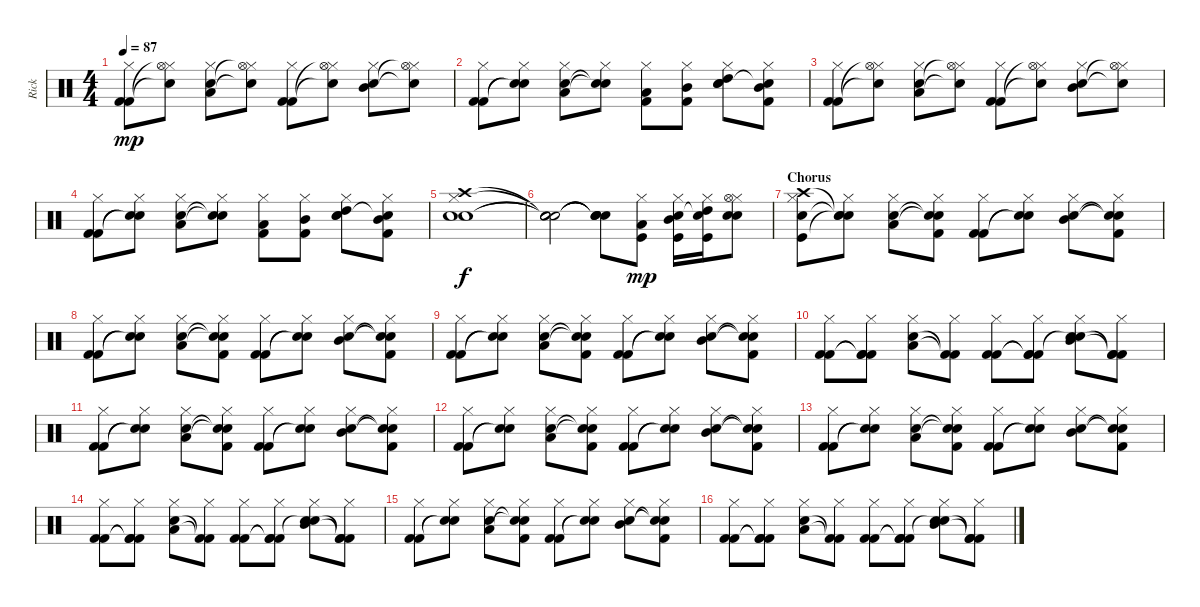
\track ("Rick" "Rick") {instrument percussion}
\staff {score}
\articulation defaults
\ts (4 4)
\tempo 87
\clef neutral
\ks c
("Hi-Hat (closed)" "Kick (hit) 2" "Kick (hit) 2").8{dy mp} ("Hi-Hat (closed)" "Hi-Hat (open)"{t} "Snare (hit)"{t}).8 ("Hi-Hat (closed)" "Electric Snare (hit)" "Low Tom (hit)").8 ("Hi-Hat (closed)" "Hi-Hat (open)"{t} "Snare (hit)"{t}).8 ("Hi-Hat (closed)" "Kick (hit) 2" "Kick (hit) 2").8 ("Hi-Hat (closed)" "Hi-Hat (open)"{t} "Snare (hit)"{t}).8 ("Hi-Hat (closed)" "Electric Snare (hit)" "Mid Tom (hit)").8 ("Hi-Hat (closed)" "Hi-Hat (open)"{t} "Snare (hit)"{t}).8 |
("Hi-Hat (closed)" "Kick (hit) 2" "Kick (hit) 2").8 ("Hi-Hat (closed)" "Snare (hit)"{t} "Snare (hit)"{t}).8 ("Hi-Hat (closed)" "Electric Snare (hit)" "Low Tom (hit)").8 ("Hi-Hat (closed)" "Snare (hit)"{t} "Snare (hit)"{t}).8 ("Hi-Hat (closed)" "Low Tom (hit)" "Kick (hit) 2").8 ("Hi-Hat (closed)" "Mid Tom (hit)" "Kick (hit) 2").8 ("Hi-Hat (closed)" "Electric Snare (hit)" "High Tom (hit)" "Snare (hit) 2").8 ("Hi-Hat (closed)" "Mid Tom (hit)" "Kick (hit) 2" "Snare (hit)"{t}).8 |
("Hi-Hat (closed)" "Kick (hit) 2" "Kick (hit) 2").8 ("Hi-Hat (closed)" "Hi-Hat (open)"{t} "Snare (hit)"{t}).8 ("Hi-Hat (closed)" "Electric Snare (hit)" "Low Tom (hit)").8 ("Hi-Hat (closed)" "Hi-Hat (open)"{t} "Snare (hit)"{t}).8 ("Hi-Hat (closed)" "Kick (hit) 2" "Kick (hit) 2").8 ("Hi-Hat (closed)" "Hi-Hat (open)"{t} "Snare (hit)"{t}).8 ("Hi-Hat (closed)" "Electric Snare (hit)" "Mid Tom (hit)").8 ("Hi-Hat (closed)" "Hi-Hat (open)"{t} "Snare (hit)"{t}).8 |
("Hi-Hat (closed)" "Kick (hit) 2" "Kick (hit) 2").8 ("Hi-Hat (closed)" "Snare (hit)"{t} "Snare (hit)"{t}).8 ("Hi-Hat (closed)" "Electric Snare (hit)" "Low Tom (hit)").8 ("Hi-Hat (closed)" "Snare (hit)"{t} "Snare (hit)"{t}).8 ("Hi-Hat (closed)" "Low Tom (hit)" "Kick (hit) 2").8 ("Hi-Hat (closed)" "Mid Tom (hit)" "Kick (hit) 2").8 ("Hi-Hat (closed)" "Electric Snare (hit)" "High Tom (hit)" "Snare (hit) 2").8 ("Hi-Hat (closed)" "Mid Tom (hit)" "Kick (hit) 2" "Snare (hit)"{t}).8 |
("Hi-Hat (closed)" "Electric Snare (hit)" "Snare (hit) 2" "Crash high (hit)").1{dy f} |
("Snare (hit)"{t} "Snare (hit)"{t} "Snare (hit)"{t} "Snare (hit)"{t}).2 ("Snare (hit)"{t} "Snare (hit)"{t} "Snare (hit)"{t} "Snare (hit)"{t}).8 ("Hi-Hat (closed)" "Kick (hit)" "Low Tom (hit)").8{dy mp} ("Hi-Hat (closed)" "Kick (hit)" "Mid Tom (hit)" "Electric Snare (hit)").16 ("Hi-Hat (closed)" "Kick (hit)" "High Tom (hit)" "Snare (hit) 2"{t}).16 ("Hi-Hat (closed)" "Electric Snare (hit)" "Snare (hit) 2" "Hi-Hat (open)").8 |
\section ("" "Chorus")
("Hi-Hat (closed)" "Electric Snare (hit)" "Kick (hit)" "Crash high (hit)").8 ("Hi-Hat (closed)" "Snare (hit)"{t} "Snare (hit)"{t} "Snare (hit)"{t}).8 ("Hi-Hat (closed)" "Electric Snare (hit)" "Low Tom (hit)").8 ("Hi-Hat (closed)" "Snare (hit)"{t} "Snare (hit)"{t} "Kick (hit) 2").8 ("Hi-Hat (closed)" "Kick (hit) 2" "Kick (hit) 2").8 ("Hi-Hat (closed)" "Snare (hit)"{t} "Snare (hit)"{t}).8 ("Hi-Hat (closed)" "Electric Snare (hit)" "Mid Tom (hit)").8 ("Hi-Hat (closed)" "Snare (hit)"{t} "Snare (hit)"{t} "Kick (hit) 2").8 |
("Hi-Hat (closed)" "Kick (hit) 2" "Kick (hit) 2").8 ("Hi-Hat (closed)" "Snare (hit)"{t} "Snare (hit)"{t}).8 ("Hi-Hat (closed)" "Electric Snare (hit)" "Low Tom (hit)").8 ("Hi-Hat (closed)" "Snare (hit)"{t} "Snare (hit)"{t} "Kick (hit) 2").8 ("Hi-Hat (closed)" "Kick (hit) 2" "Kick (hit) 2").8 ("Hi-Hat (closed)" "Snare (hit)"{t} "Snare (hit)"{t}).8 ("Hi-Hat (closed)" "Electric Snare (hit)" "Mid Tom (hit)").8 ("Hi-Hat (closed)" "Snare (hit)"{t} "Snare (hit)"{t} "Kick (hit) 2").8 |
("Hi-Hat (closed)" "Kick (hit) 2" "Kick (hit) 2").8 ("Hi-Hat (closed)" "Snare (hit)"{t} "Snare (hit)"{t}).8 ("Hi-Hat (closed)" "Electric Snare (hit)" "Low Tom (hit)").8 ("Hi-Hat (closed)" "Snare (hit)"{t} "Snare (hit)"{t} "Kick (hit) 2").8 ("Hi-Hat (closed)" "Kick (hit) 2" "Kick (hit) 2").8 ("Hi-Hat (closed)" "Snare (hit)"{t} "Snare (hit)"{t}).8 ("Hi-Hat (closed)" "Electric Snare (hit)" "Mid Tom (hit)").8 ("Hi-Hat (closed)" "Snare (hit)"{t} "Snare (hit)"{t} "Kick (hit) 2").8 |
("Hi-Hat (closed)" "Kick (hit) 2" "Kick (hit) 2").8 ("Hi-Hat (closed)" "Kick (hit) 2"{t} "Kick (hit) 2"{t} "Kick (hit) 2").8 ("Hi-Hat (closed)" "Electric Snare (hit)" "Low Tom (hit)").8 ("Hi-Hat (closed)" "Kick (hit) 2"{t} "Kick (hit) 2"{t}).8 ("Hi-Hat (closed)" "Kick (hit) 2" "Kick (hit) 2").8 ("Hi-Hat (closed)" "Kick (hit) 2"{t} "Kick (hit) 2"{t} "Kick (hit) 2").8 ("Hi-Hat (closed)" "Electric Snare (hit)" "Mid Tom (hit)" "Electric Snare (hit)"{t}).8 ("Hi-Hat (closed)" "Kick (hit) 2"{t} "Kick (hit) 2"{t} "Kick (hit) 2").8 |
("Hi-Hat (closed)" "Kick (hit) 2" "Kick (hit) 2").8 ("Hi-Hat (closed)" "Snare (hit)"{t} "Snare (hit)"{t}).8 ("Hi-Hat (closed)" "Electric Snare (hit)" "Low Tom (hit)").8 ("Hi-Hat (closed)" "Snare (hit)"{t} "Snare (hit)"{t} "Kick (hit) 2").8 ("Hi-Hat (closed)" "Kick (hit) 2" "Kick (hit) 2").8 ("Hi-Hat (closed)" "Snare (hit)"{t} "Snare (hit)"{t}).8 ("Hi-Hat (closed)" "Electric Snare (hit)" "Mid Tom (hit)").8 ("Hi-Hat (closed)" "Snare (hit)"{t} "Snare (hit)"{t} "Kick (hit) 2").8 |
("Hi-Hat (closed)" "Kick (hit) 2" "Kick (hit) 2").8 ("Hi-Hat (closed)" "Snare (hit)"{t} "Snare (hit)"{t}).8 ("Hi-Hat (closed)" "Electric Snare (hit)" "Low Tom (hit)").8 ("Hi-Hat (closed)" "Snare (hit)"{t} "Snare (hit)"{t} "Kick (hit) 2").8 ("Hi-Hat (closed)" "Kick (hit) 2" "Kick (hit) 2").8 ("Hi-Hat (closed)" "Snare (hit)"{t} "Snare (hit)"{t}).8 ("Hi-Hat (closed)" "Electric Snare (hit)" "Mid Tom (hit)").8 ("Hi-Hat (closed)" "Snare (hit)"{t} "Snare (hit)"{t} "Kick (hit) 2").8 |
("Hi-Hat (closed)" "Kick (hit) 2" "Kick (hit) 2").8 ("Hi-Hat (closed)" "Snare (hit)"{t} "Snare (hit)"{t}).8 ("Hi-Hat (closed)" "Electric Snare (hit)" "Low Tom (hit)").8 ("Hi-Hat (closed)" "Snare (hit)"{t} "Snare (hit)"{t} "Kick (hit) 2").8 ("Hi-Hat (closed)" "Kick (hit) 2" "Kick (hit) 2").8 ("Hi-Hat (closed)" "Snare (hit)"{t} "Snare (hit)"{t}).8 ("Hi-Hat (closed)" "Electric Snare (hit)" "Mid Tom (hit)").8 ("Hi-Hat (closed)" "Snare (hit)"{t} "Snare (hit)"{t} "Kick (hit) 2").8 |
("Hi-Hat (closed)" "Kick (hit) 2" "Kick (hit) 2").8 ("Hi-Hat (closed)" "Kick (hit) 2"{t} "Kick (hit) 2"{t} "Kick (hit) 2").8 ("Hi-Hat (closed)" "Electric Snare (hit)" "Low Tom (hit)").8 ("Hi-Hat (closed)" "Kick (hit) 2"{t} "Kick (hit) 2"{t}).8 ("Hi-Hat (closed)" "Kick (hit) 2" "Kick (hit) 2").8 ("Hi-Hat (closed)" "Kick (hit) 2"{t} "Kick (hit) 2"{t} "Kick (hit) 2").8 ("Hi-Hat (closed)" "Electric Snare (hit)" "Mid Tom (hit)" "Electric Snare (hit)"{t}).8 ("Hi-Hat (closed)" "Kick (hit) 2"{t} "Kick (hit) 2"{t} "Kick (hit) 2").8 |
("Hi-Hat (closed)" "Kick (hit) 2" "Kick (hit) 2").8 ("Hi-Hat (closed)" "Snare (hit)"{t} "Snare (hit)"{t}).8 ("Hi-Hat (closed)" "Electric Snare (hit)" "Low Tom (hit)").8 ("Hi-Hat (closed)" "Snare (hit)"{t} "Snare (hit)"{t} "Kick (hit) 2").8 ("Hi-Hat (closed)" "Kick (hit) 2" "Kick (hit) 2").8 ("Hi-Hat (closed)" "Snare (hit)"{t} "Snare (hit)"{t}).8 ("Hi-Hat (closed)" "Electric Snare (hit)" "Mid Tom (hit)").8 ("Hi-Hat (closed)" "Snare (hit)"{t} "Snare (hit)"{t} "Kick (hit) 2").8 |
("Hi-Hat (closed)" "Kick (hit) 2" "Kick (hit) 2").8 ("Hi-Hat (closed)" "Kick (hit) 2"{t} "Kick (hit) 2"{t} "Kick (hit) 2").8 ("Hi-Hat (closed)" "Electric Snare (hit)" "Low Tom (hit)").8 ("Hi-Hat (closed)" "Kick (hit) 2"{t} "Kick (hit) 2"{t}).8 ("Hi-Hat (closed)" "Kick (hit) 2" "Kick (hit) 2").8 ("Hi-Hat (closed)" "Kick (hit) 2"{t} "Kick (hit) 2"{t} "Kick (hit) 2").8 ("Hi-Hat (closed)" "Electric Snare (hit)" "Mid Tom (hit)" "Electric Snare (hit)"{t}).8 ("Hi-Hat (closed)" "Kick (hit) 2"{t} "Kick (hit) 2"{t} "Kick (hit) 2").8
